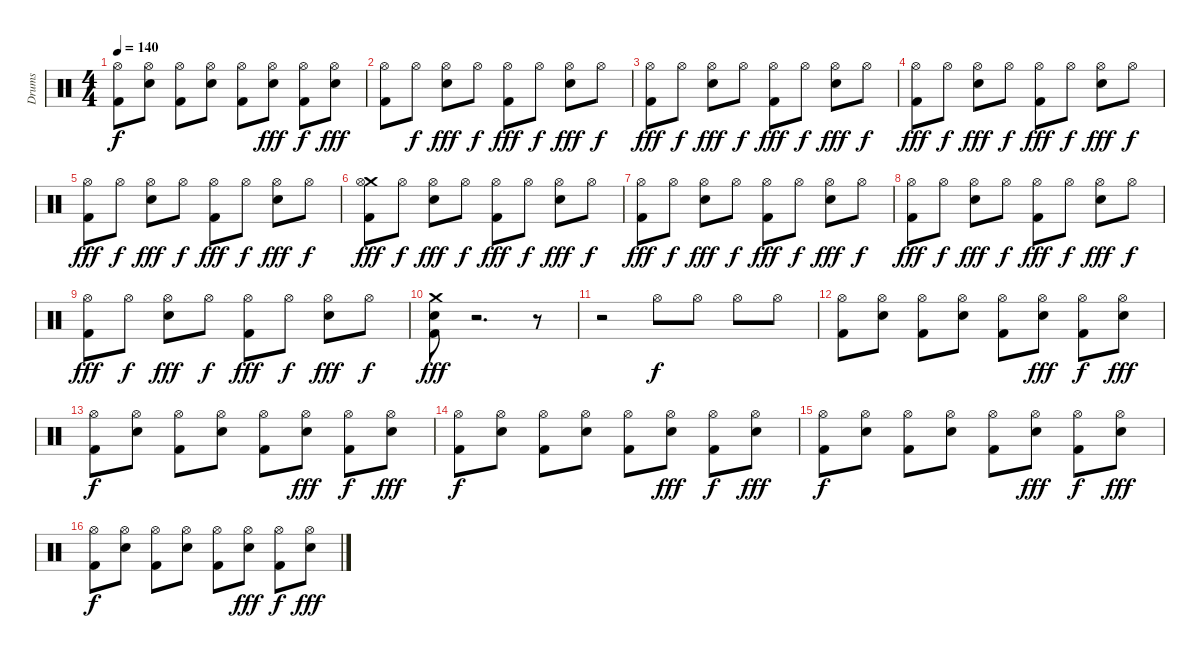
\track ("Drums" "Drums") {instrument percussion}
\staff {score}
\articulation defaults
\ts (4 4)
\tempo 140
\clef neutral
\ks c
("Hi-Hat (open)" "Kick (hit) 2").8{dy f} ("Hi-Hat (open)" "Electric Snare (hit)").8 ("Hi-Hat (open)" "Kick (hit) 2").8 ("Hi-Hat (open)" "Electric Snare (hit)").8 ("Hi-Hat (open)" "Kick (hit) 2").8 ("Hi-Hat (open)" "Electric Snare (hit)").8{dy fff} ("Hi-Hat (open)" "Kick (hit) 2").8{dy f} ("Hi-Hat (open)" "Electric Snare (hit)").8{dy fff} |
("Hi-Hat (open)" "Kick (hit) 2").8 "Hi-Hat (open)".8{dy f} ("Hi-Hat (open)" "Electric Snare (hit)").8{dy fff} "Hi-Hat (open)".8{dy f} ("Hi-Hat (open)" "Kick (hit) 2").8{dy fff} "Hi-Hat (open)".8{dy f} ("Hi-Hat (open)" "Electric Snare (hit)").8{dy fff} "Hi-Hat (open)".8{dy f} |
("Hi-Hat (open)" "Kick (hit) 2").8{dy fff} "Hi-Hat (open)".8{dy f} ("Hi-Hat (open)" "Electric Snare (hit)").8{dy fff} "Hi-Hat (open)".8{dy f} ("Hi-Hat (open)" "Kick (hit) 2").8{dy fff} "Hi-Hat (open)".8{dy f} ("Hi-Hat (open)" "Electric Snare (hit)").8{dy fff} "Hi-Hat (open)".8{dy f} |
("Hi-Hat (open)" "Kick (hit) 2").8{dy fff} "Hi-Hat (open)".8{dy f} ("Hi-Hat (open)" "Electric Snare (hit)").8{dy fff} "Hi-Hat (open)".8{dy f} ("Hi-Hat (open)" "Kick (hit) 2").8{dy fff} "Hi-Hat (open)".8{dy f} ("Hi-Hat (open)" "Electric Snare (hit)").8{dy fff} "Hi-Hat (open)".8{dy f} |
("Hi-Hat (open)" "Kick (hit) 2").8{dy fff} "Hi-Hat (open)".8{dy f} ("Hi-Hat (open)" "Electric Snare (hit)").8{dy fff} "Hi-Hat (open)".8{dy f} ("Hi-Hat (open)" "Kick (hit) 2").8{dy fff} "Hi-Hat (open)".8{dy f} ("Hi-Hat (open)" "Electric Snare (hit)").8{dy fff} "Hi-Hat (open)".8{dy f} |
("Crash medium (hit)" "Hi-Hat (open)" "Kick (hit) 2").8{dy fff} "Hi-Hat (open)".8{dy f} ("Hi-Hat (open)" "Electric Snare (hit)").8{dy fff} "Hi-Hat (open)".8{dy f} ("Hi-Hat (open)" "Kick (hit) 2").8{dy fff} "Hi-Hat (open)".8{dy f} ("Hi-Hat (open)" "Electric Snare (hit)").8{dy fff} "Hi-Hat (open)".8{dy f} |
("Hi-Hat (open)" "Kick (hit) 2").8{dy fff} "Hi-Hat (open)".8{dy f} ("Hi-Hat (open)" "Electric Snare (hit)").8{dy fff} "Hi-Hat (open)".8{dy f} ("Hi-Hat (open)" "Kick (hit) 2").8{dy fff} "Hi-Hat (open)".8{dy f} ("Hi-Hat (open)" "Electric Snare (hit)").8{dy fff} "Hi-Hat (open)".8{dy f} |
("Hi-Hat (open)" "Kick (hit) 2").8{dy fff} "Hi-Hat (open)".8{dy f} ("Hi-Hat (open)" "Electric Snare (hit)").8{dy fff} "Hi-Hat (open)".8{dy f} ("Hi-Hat (open)" "Kick (hit) 2").8{dy fff} "Hi-Hat (open)".8{dy f} ("Hi-Hat (open)" "Electric Snare (hit)").8{dy fff} "Hi-Hat (open)".8{dy f} |
("Hi-Hat (open)" "Kick (hit) 2").8{dy fff} "Hi-Hat (open)".8{dy f} ("Hi-Hat (open)" "Electric Snare (hit)").8{dy fff} "Hi-Hat (open)".8{dy f} ("Hi-Hat (open)" "Kick (hit) 2").8{dy fff} "Hi-Hat (open)".8{dy f} ("Hi-Hat (open)" "Electric Snare (hit)").8{dy fff} "Hi-Hat (open)".8{dy f} |
("Crash medium (hit)" "Electric Snare (hit)" "Kick (hit) 2").8{dy fff} r.2{d} r.8 |
r.2 "Hi-Hat (open)".8{dy f} "Hi-Hat (open)".8 "Hi-Hat (open)".8 "Hi-Hat (open)".8 |
("Hi-Hat (open)" "Kick (hit) 2").8 ("Hi-Hat (open)" "Electric Snare (hit)").8 ("Hi-Hat (open)" "Kick (hit) 2").8 ("Hi-Hat (open)" "Electric Snare (hit)").8 ("Hi-Hat (open)" "Kick (hit) 2").8 ("Hi-Hat (open)" "Electric Snare (hit)").8{dy fff} ("Hi-Hat (open)" "Kick (hit) 2").8{dy f} ("Hi-Hat (open)" "Electric Snare (hit)").8{dy fff} |
("Hi-Hat (open)" "Kick (hit) 2").8{dy f} ("Hi-Hat (open)" "Electric Snare (hit)").8 ("Hi-Hat (open)" "Kick (hit) 2").8 ("Hi-Hat (open)" "Electric Snare (hit)").8 ("Hi-Hat (open)" "Kick (hit) 2").8 ("Hi-Hat (open)" "Electric Snare (hit)").8{dy fff} ("Hi-Hat (open)" "Kick (hit) 2").8{dy f} ("Hi-Hat (open)" "Electric Snare (hit)").8{dy fff} |
("Hi-Hat (open)" "Kick (hit) 2").8{dy f} ("Hi-Hat (open)" "Electric Snare (hit)").8 ("Hi-Hat (open)" "Kick (hit) 2").8 ("Hi-Hat (open)" "Electric Snare (hit)").8 ("Hi-Hat (open)" "Kick (hit) 2").8 ("Hi-Hat (open)" "Electric Snare (hit)").8{dy fff} ("Hi-Hat (open)" "Kick (hit) 2").8{dy f} ("Hi-Hat (open)" "Electric Snare (hit)").8{dy fff} |
("Hi-Hat (open)" "Kick (hit) 2").8{dy f} ("Hi-Hat (open)" "Electric Snare (hit)").8 ("Hi-Hat (open)" "Kick (hit) 2").8 ("Hi-Hat (open)" "Electric Snare (hit)").8 ("Hi-Hat (open)" "Kick (hit) 2").8 ("Hi-Hat (open)" "Electric Snare (hit)").8{dy fff} ("Hi-Hat (open)" "Kick (hit) 2").8{dy f} ("Hi-Hat (open)" "Electric Snare (hit)").8{dy fff} |
("Hi-Hat (open)" "Kick (hit) 2").8{dy f} ("Hi-Hat (open)" "Electric Snare (hit)").8 ("Hi-Hat (open)" "Kick (hit) 2").8 ("Hi-Hat (open)" "Electric Snare (hit)").8 ("Hi-Hat (open)" "Kick (hit) 2").8 ("Hi-Hat (open)" "Electric Snare (hit)").8{dy fff} ("Hi-Hat (open)" "Kick (hit) 2").8{dy f} ("Hi-Hat (open)" "Electric Snare (hit)").8{dy fff}
